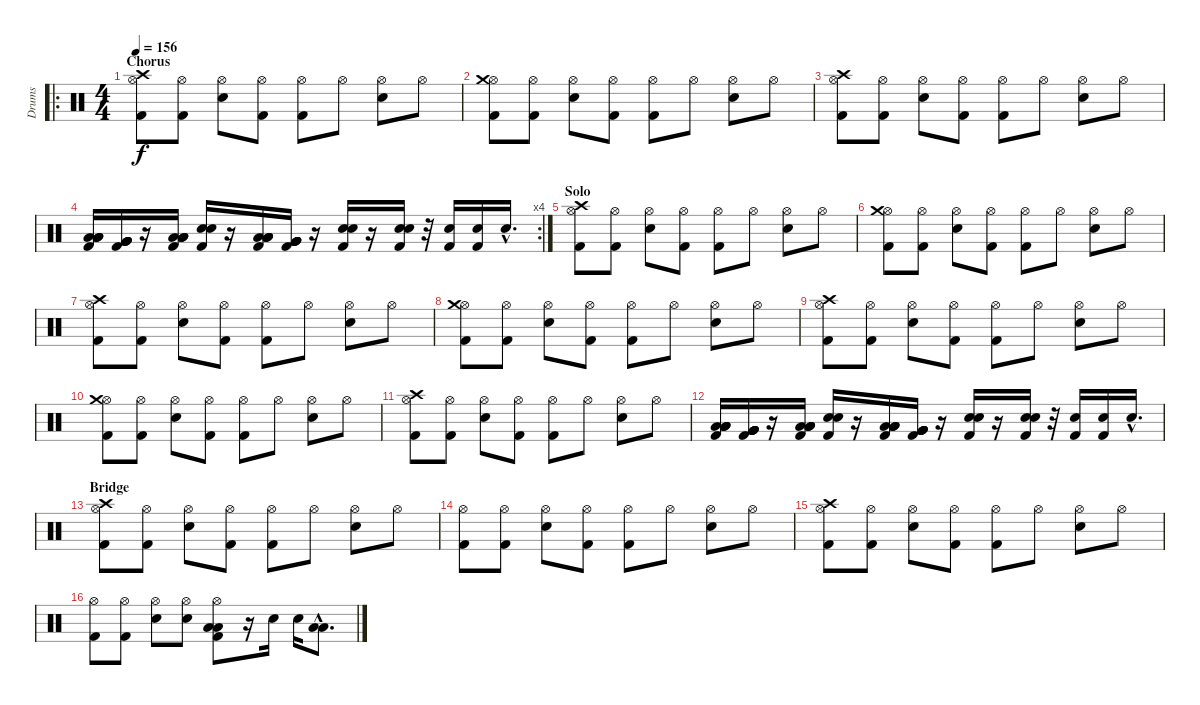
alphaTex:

\track ("Drums" "Drums") {instrument percussion}
\staff {score}
\articulation defaults
\ro
\ts (4 4)
\section ("" "Chorus")
\tempo 156
\clef neutral
\ks c
("Hi-Hat (open)" "Kick (hit) 2" "Crash high (hit)").8{dy f} ("Hi-Hat (open)" "Kick (hit) 2").8 ("Hi-Hat (open)" "Snare (hit) 2").8 ("Hi-Hat (open)" "Kick (hit) 2").8 ("Hi-Hat (open)" "Kick (hit) 2").8 "Hi-Hat (open)".8 ("Hi-Hat (open)" "Snare (hit) 2").8 "Hi-Hat (open)".8 |
("Hi-Hat (open)" "Kick (hit) 2" "Crash medium (hit)").8 ("Hi-Hat (open)" "Kick (hit) 2").8 ("Hi-Hat (open)" "Snare (hit) 2").8 ("Hi-Hat (open)" "Kick (hit) 2").8 ("Hi-Hat (open)" "Kick (hit) 2").8 "Hi-Hat (open)".8 ("Hi-Hat (open)" "Snare (hit) 2").8 "Hi-Hat (open)".8 |
("Hi-Hat (open)" "Kick (hit) 2" "Crash high (hit)").8 ("Hi-Hat (open)" "Kick (hit) 2").8 ("Hi-Hat (open)" "Snare (hit) 2").8 ("Hi-Hat (open)" "Kick (hit) 2").8 ("Hi-Hat (open)" "Kick (hit) 2").8 "Hi-Hat (open)".8 ("Hi-Hat (open)" "Snare (hit) 2").8 "Hi-Hat (open)".8 |
\rc 4
("Low Tom (hit)" "Low Tom (hit)" "Low Tom (hit)" "Low Tom (hit)" "Kick (hit) 2").16 ("Very Low Tom (hit)" "Very Low Tom (hit)" "Very Low Tom (hit)" "Very Low Tom (hit)" "Kick (hit) 2").16 r.16 ("Low Tom (hit)" "Low Tom (hit)" "Low Tom (hit)" "Low Tom (hit)" "Kick (hit) 2").16 ("Snare (hit) 2" "Snare (hit) 2" "Kick (hit) 2").16 r.16 ("Low Tom (hit)" "Low Tom (hit)" "Low Tom (hit)" "Low Tom (hit)" "Kick (hit) 2").16 ("Very Low Tom (hit)" "Very Low Tom (hit)" "Very Low Tom (hit)" "Very Low Tom (hit)" "Kick (hit) 2").16 r.16 ("Snare (hit) 2" "Snare (hit) 2" "Kick (hit) 2").16 r.16 ("Snare (hit) 2" "Snare (hit) 2" "Kick (hit) 2").16 r.32 ("Snare (hit) 2" "Kick (hit) 2").16 ("Snare (hit) 2" "Kick (hit) 2").16 "Snare (hit) 2"{hac}.16{d} |
\section ("" "Solo")
("Hi-Hat (open)" "Kick (hit) 2" "Crash high (hit)").8 ("Hi-Hat (open)" "Kick (hit) 2").8 ("Hi-Hat (open)" "Snare (hit) 2").8 ("Hi-Hat (open)" "Kick (hit) 2").8 ("Hi-Hat (open)" "Kick (hit) 2").8 "Hi-Hat (open)".8 ("Hi-Hat (open)" "Snare (hit) 2").8 "Hi-Hat (open)".8 |
("Hi-Hat (open)" "Kick (hit) 2" "Crash medium (hit)").8 ("Hi-Hat (open)" "Kick (hit) 2").8 ("Hi-Hat (open)" "Snare (hit) 2").8 ("Hi-Hat (open)" "Kick (hit) 2").8 ("Hi-Hat (open)" "Kick (hit) 2").8 "Hi-Hat (open)".8 ("Hi-Hat (open)" "Snare (hit) 2").8 "Hi-Hat (open)".8 |
("Hi-Hat (open)" "Kick (hit) 2" "Crash high (hit)").8 ("Hi-Hat (open)" "Kick (hit) 2").8 ("Hi-Hat (open)" "Snare (hit) 2").8 ("Hi-Hat (open)" "Kick (hit) 2").8 ("Hi-Hat (open)" "Kick (hit) 2").8 "Hi-Hat (open)".8 ("Hi-Hat (open)" "Snare (hit) 2").8 "Hi-Hat (open)".8 |
("Hi-Hat (open)" "Kick (hit) 2" "Crash medium (hit)").8 ("Hi-Hat (open)" "Kick (hit) 2").8 ("Hi-Hat (open)" "Snare (hit) 2").8 ("Hi-Hat (open)" "Kick (hit) 2").8 ("Hi-Hat (open)" "Kick (hit) 2").8 "Hi-Hat (open)".8 ("Hi-Hat (open)" "Snare (hit) 2").8 "Hi-Hat (open)".8 |
("Hi-Hat (open)" "Kick (hit) 2" "Crash high (hit)").8 ("Hi-Hat (open)" "Kick (hit) 2").8 ("Hi-Hat (open)" "Snare (hit) 2").8 ("Hi-Hat (open)" "Kick (hit) 2").8 ("Hi-Hat (open)" "Kick (hit) 2").8 "Hi-Hat (open)".8 ("Hi-Hat (open)" "Snare (hit) 2").8 "Hi-Hat (open)".8 |
("Hi-Hat (open)" "Kick (hit) 2" "Crash medium (hit)").8 ("Hi-Hat (open)" "Kick (hit) 2").8 ("Hi-Hat (open)" "Snare (hit) 2").8 ("Hi-Hat (open)" "Kick (hit) 2").8 ("Hi-Hat (open)" "Kick (hit) 2").8 "Hi-Hat (open)".8 ("Hi-Hat (open)" "Snare (hit) 2").8 "Hi-Hat (open)".8 |
("Hi-Hat (open)" "Kick (hit) 2" "Crash high (hit)").8 ("Hi-Hat (open)" "Kick (hit) 2").8 ("Hi-Hat (open)" "Snare (hit) 2").8 ("Hi-Hat (open)" "Kick (hit) 2").8 ("Hi-Hat (open)" "Kick (hit) 2").8 "Hi-Hat (open)".8 ("Hi-Hat (open)" "Snare (hit) 2").8 "Hi-Hat (open)".8 |
("Low Tom (hit)" "Low Tom (hit)" "Low Tom (hit)" "Low Tom (hit)" "Kick (hit) 2").16 ("Very Low Tom (hit)" "Very Low Tom (hit)" "Very Low Tom (hit)" "Very Low Tom (hit)" "Kick (hit) 2").16 r.16 ("Low Tom (hit)" "Low Tom (hit)" "Low Tom (hit)" "Low Tom (hit)" "Kick (hit) 2").16 ("Snare (hit) 2" "Snare (hit) 2" "Kick (hit) 2").16 r.16 ("Low Tom (hit)" "Low Tom (hit)" "Low Tom (hit)" "Low Tom (hit)" "Kick (hit) 2").16 ("Very Low Tom (hit)" "Very Low Tom (hit)" "Very Low Tom (hit)" "Very Low Tom (hit)" "Kick (hit) 2").16 r.16 ("Snare (hit) 2" "Snare (hit) 2" "Kick (hit) 2").16 r.16 ("Snare (hit) 2" "Snare (hit) 2" "Kick (hit) 2").16 r.32 ("Snare (hit) 2" "Kick (hit) 2").16 ("Snare (hit) 2" "Kick (hit) 2").16 "Snare (hit) 2"{hac}.16{d} |
\section ("" "Bridge")
("Hi-Hat (open)" "Kick (hit) 2" "Crash high (hit)").8 ("Hi-Hat (open)" "Kick (hit) 2").8 ("Hi-Hat (open)" "Snare (hit) 2").8 ("Hi-Hat (open)" "Kick (hit) 2").8 ("Hi-Hat (open)" "Kick (hit) 2").8 "Hi-Hat (open)".8 ("Hi-Hat (open)" "Snare (hit) 2").8 "Hi-Hat (open)".8 |
("Hi-Hat (open)" "Kick (hit) 2").8 ("Hi-Hat (open)" "Kick (hit) 2").8 ("Hi-Hat (open)" "Snare (hit) 2").8 ("Hi-Hat (open)" "Kick (hit) 2").8 ("Hi-Hat (open)" "Kick (hit) 2").8 "Hi-Hat (open)".8 ("Hi-Hat (open)" "Snare (hit) 2").8 "Hi-Hat (open)".8 |
("Hi-Hat (open)" "Kick (hit) 2" "Crash high (hit)").8 ("Hi-Hat (open)" "Kick (hit) 2").8 ("Hi-Hat (open)" "Snare (hit) 2").8 ("Hi-Hat (open)" "Kick (hit) 2").8 ("Hi-Hat (open)" "Kick (hit) 2").8 "Hi-Hat (open)".8 ("Hi-Hat (open)" "Snare (hit) 2").8 "Hi-Hat (open)".8 |
("Hi-Hat (open)" "Kick (hit) 2").8 ("Hi-Hat (open)" "Kick (hit) 2").8 ("Hi-Hat (open)" "Snare (hit) 2").8 ("Hi-Hat (open)" "Snare (hit) 2").8 ("Hi-Hat (open)" "Kick (hit) 2" "Low Tom (hit)" "Low Tom (hit)").8 r.16 "Snare (hit) 2".16 "Snare (hit) 2".16 ("Low Tom (hit)"{hac} "Low Tom (hit)"{hac}).8{d}
